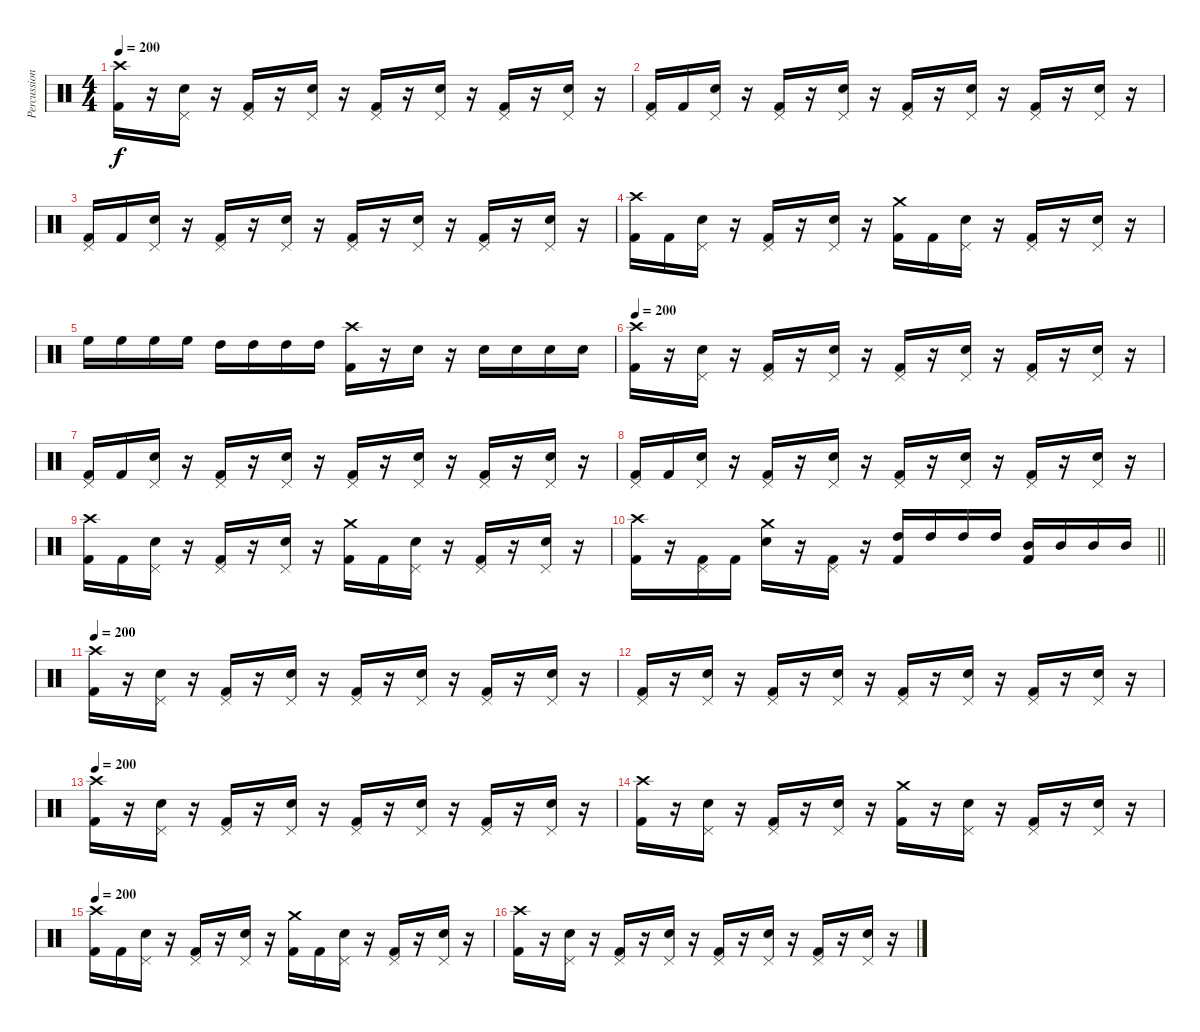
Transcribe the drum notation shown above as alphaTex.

\track ("Percussion" "Percussion") {instrument percussion}
\staff {score}
\articulation defaults
\ts (4 4)
\section ("" "")
\tempo 200
\clef neutral
\ks c
("Crash high (hit)" "Kick (hit) 2").16{dy f} r.16 ("Pedal Hi-Hat (hit)" "Snare (hit) 2").16 r.16 ("Pedal Hi-Hat (hit)" "Kick (hit) 2").16 r.16 ("Pedal Hi-Hat (hit)" "Snare (hit) 2").16 r.16 ("Pedal Hi-Hat (hit)" "Kick (hit) 2").16 r.16 ("Pedal Hi-Hat (hit)" "Snare (hit) 2").16 r.16 ("Pedal Hi-Hat (hit)" "Kick (hit) 2").16 r.16 ("Pedal Hi-Hat (hit)" "Snare (hit) 2").16 r.16 |
("Pedal Hi-Hat (hit)" "Kick (hit) 2").16 "Kick (hit) 2".16 ("Pedal Hi-Hat (hit)" "Snare (hit) 2").16 r.16 ("Pedal Hi-Hat (hit)" "Kick (hit) 2").16 r.16 ("Pedal Hi-Hat (hit)" "Snare (hit) 2").16 r.16 ("Pedal Hi-Hat (hit)" "Kick (hit) 2").16 r.16 ("Pedal Hi-Hat (hit)" "Snare (hit) 2").16 r.16 ("Pedal Hi-Hat (hit)" "Kick (hit) 2").16 r.16 ("Pedal Hi-Hat (hit)" "Snare (hit) 2").16 r.16 |
("Pedal Hi-Hat (hit)" "Kick (hit) 2").16 "Kick (hit) 2".16 ("Pedal Hi-Hat (hit)" "Snare (hit) 2").16 r.16 ("Pedal Hi-Hat (hit)" "Kick (hit) 2").16 r.16 ("Pedal Hi-Hat (hit)" "Snare (hit) 2").16 r.16 ("Pedal Hi-Hat (hit)" "Kick (hit) 2").16 r.16 ("Pedal Hi-Hat (hit)" "Snare (hit) 2").16 r.16 ("Pedal Hi-Hat (hit)" "Kick (hit) 2").16 r.16 ("Pedal Hi-Hat (hit)" "Snare (hit) 2").16 r.16 |
("Crash high (hit)" "Kick (hit) 2").16 "Kick (hit) 2".16 ("Pedal Hi-Hat (hit)" "Snare (hit) 2").16 r.16 ("Pedal Hi-Hat (hit)" "Kick (hit) 2").16 r.16 ("Pedal Hi-Hat (hit)" "Snare (hit) 2").16 r.16 ("Crash medium (hit)" "Kick (hit) 2").16 "Kick (hit) 2".16 ("Pedal Hi-Hat (hit)" "Snare (hit) 2").16 r.16 ("Pedal Hi-Hat (hit)" "Kick (hit) 2").16 r.16 ("Pedal Hi-Hat (hit)" "Snare (hit) 2").16 r.16 |
"High Floor Tom (hit)".16 "High Floor Tom (hit)".16 "High Floor Tom (hit)".16 "High Floor Tom (hit)".16 "High Tom (hit)".16 "High Tom (hit)".16 "High Tom (hit)".16 "High Tom (hit)".16 ("Crash high (hit)" "Kick (hit) 2").16 r.16 "Snare (hit) 2".16 r.16 "Snare (hit) 2".16 "Snare (hit) 2".16 "Snare (hit) 2".16 "Snare (hit) 2".16 |
\tempo 200
("Crash high (hit)" "Kick (hit) 2").16 r.16 ("Pedal Hi-Hat (hit)" "Snare (hit) 2").16 r.16 ("Pedal Hi-Hat (hit)" "Kick (hit) 2").16 r.16 ("Pedal Hi-Hat (hit)" "Snare (hit) 2").16 r.16 ("Pedal Hi-Hat (hit)" "Kick (hit) 2").16 r.16 ("Pedal Hi-Hat (hit)" "Snare (hit) 2").16 r.16 ("Pedal Hi-Hat (hit)" "Kick (hit) 2").16 r.16 ("Pedal Hi-Hat (hit)" "Snare (hit) 2").16 r.16 |
("Pedal Hi-Hat (hit)" "Kick (hit) 2").16 "Kick (hit) 2".16 ("Pedal Hi-Hat (hit)" "Snare (hit) 2").16 r.16 ("Pedal Hi-Hat (hit)" "Kick (hit) 2").16 r.16 ("Pedal Hi-Hat (hit)" "Snare (hit) 2").16 r.16 ("Pedal Hi-Hat (hit)" "Kick (hit) 2").16 r.16 ("Pedal Hi-Hat (hit)" "Snare (hit) 2").16 r.16 ("Pedal Hi-Hat (hit)" "Kick (hit) 2").16 r.16 ("Pedal Hi-Hat (hit)" "Snare (hit) 2").16 r.16 |
("Pedal Hi-Hat (hit)" "Kick (hit) 2").16 "Kick (hit) 2".16 ("Pedal Hi-Hat (hit)" "Snare (hit) 2").16 r.16 ("Pedal Hi-Hat (hit)" "Kick (hit) 2").16 r.16 ("Pedal Hi-Hat (hit)" "Snare (hit) 2").16 r.16 ("Pedal Hi-Hat (hit)" "Kick (hit) 2").16 r.16 ("Pedal Hi-Hat (hit)" "Snare (hit) 2").16 r.16 ("Pedal Hi-Hat (hit)" "Kick (hit) 2").16 r.16 ("Pedal Hi-Hat (hit)" "Snare (hit) 2").16 r.16 |
("Crash high (hit)" "Kick (hit) 2").16 "Kick (hit) 2".16 ("Pedal Hi-Hat (hit)" "Snare (hit) 2").16 r.16 ("Pedal Hi-Hat (hit)" "Kick (hit) 2").16 r.16 ("Pedal Hi-Hat (hit)" "Snare (hit) 2").16 r.16 ("Crash medium (hit)" "Kick (hit) 2").16 "Kick (hit) 2".16 ("Pedal Hi-Hat (hit)" "Snare (hit) 2").16 r.16 ("Pedal Hi-Hat (hit)" "Kick (hit) 2").16 r.16 ("Pedal Hi-Hat (hit)" "Snare (hit) 2").16 r.16 |
\barLineRight lightlight
("Crash high (hit)" "Kick (hit) 2").16 r.16 ("Pedal Hi-Hat (hit)" "Kick (hit) 2").16 "Kick (hit) 2".16 ("Crash medium (hit)" "Snare (hit) 2").16 r.16 ("Pedal Hi-Hat (hit)" "Kick (hit) 2").16 r.16 ("High Tom (hit)" "Kick (hit) 2").16 "High Tom (hit)".16 "High Tom (hit)".16 "High Tom (hit)".16 ("Mid Tom (hit)" "Kick (hit) 2").16 "Mid Tom (hit)".16 "Mid Tom (hit)".16 "Mid Tom (hit)".16 |
\section ("" "")
\tempo 200
("Crash high (hit)" "Kick (hit) 2").16 r.16 ("Pedal Hi-Hat (hit)" "Snare (hit) 2").16 r.16 ("Pedal Hi-Hat (hit)" "Kick (hit) 2").16 r.16 ("Pedal Hi-Hat (hit)" "Snare (hit) 2").16 r.16 ("Pedal Hi-Hat (hit)" "Kick (hit) 2").16 r.16 ("Pedal Hi-Hat (hit)" "Snare (hit) 2").16 r.16 ("Pedal Hi-Hat (hit)" "Kick (hit) 2").16 r.16 ("Pedal Hi-Hat (hit)" "Snare (hit) 2").16 r.16 |
("Pedal Hi-Hat (hit)" "Kick (hit) 2").16 r.16 ("Pedal Hi-Hat (hit)" "Snare (hit) 2").16 r.16 ("Pedal Hi-Hat (hit)" "Kick (hit) 2").16 r.16 ("Pedal Hi-Hat (hit)" "Snare (hit) 2").16 r.16 ("Pedal Hi-Hat (hit)" "Kick (hit) 2").16 r.16 ("Pedal Hi-Hat (hit)" "Snare (hit) 2").16 r.16 ("Pedal Hi-Hat (hit)" "Kick (hit) 2").16 r.16 ("Pedal Hi-Hat (hit)" "Snare (hit) 2").16 r.16 |
\tempo 200
("Crash high (hit)" "Kick (hit) 2").16 r.16 ("Pedal Hi-Hat (hit)" "Snare (hit) 2").16 r.16 ("Pedal Hi-Hat (hit)" "Kick (hit) 2").16 r.16 ("Pedal Hi-Hat (hit)" "Snare (hit) 2").16 r.16 ("Pedal Hi-Hat (hit)" "Kick (hit) 2").16 r.16 ("Pedal Hi-Hat (hit)" "Snare (hit) 2").16 r.16 ("Pedal Hi-Hat (hit)" "Kick (hit) 2").16 r.16 ("Pedal Hi-Hat (hit)" "Snare (hit) 2").16 r.16 |
("Crash high (hit)" "Kick (hit) 2").16 r.16 ("Pedal Hi-Hat (hit)" "Snare (hit) 2").16 r.16 ("Pedal Hi-Hat (hit)" "Kick (hit) 2").16 r.16 ("Pedal Hi-Hat (hit)" "Snare (hit) 2").16 r.16 ("Crash medium (hit)" "Kick (hit) 2").16 r.16 ("Pedal Hi-Hat (hit)" "Snare (hit) 2").16 r.16 ("Pedal Hi-Hat (hit)" "Kick (hit) 2").16 r.16 ("Pedal Hi-Hat (hit)" "Snare (hit) 2").16 r.16 |
\tempo 200
("Crash high (hit)" "Kick (hit) 2").16 "Kick (hit) 2".16 ("Pedal Hi-Hat (hit)" "Snare (hit) 2").16 r.16 ("Pedal Hi-Hat (hit)" "Kick (hit) 2").16 r.16 ("Pedal Hi-Hat (hit)" "Snare (hit) 2").16 r.16 ("Crash medium (hit)" "Kick (hit) 2").16 "Kick (hit) 2".16 ("Pedal Hi-Hat (hit)" "Snare (hit) 2").16 r.16 ("Pedal Hi-Hat (hit)" "Kick (hit) 2").16 r.16 ("Pedal Hi-Hat (hit)" "Snare (hit) 2").16 r.16 |
("Crash high (hit)" "Kick (hit) 2").16 r.16 ("Pedal Hi-Hat (hit)" "Snare (hit) 2").16 r.16 ("Pedal Hi-Hat (hit)" "Kick (hit) 2").16 r.16 ("Pedal Hi-Hat (hit)" "Snare (hit) 2").16 r.16 ("Pedal Hi-Hat (hit)" "Kick (hit) 2").16 r.16 ("Pedal Hi-Hat (hit)" "Snare (hit) 2").16 r.16 ("Pedal Hi-Hat (hit)" "Kick (hit) 2").16 r.16 ("Pedal Hi-Hat (hit)" "Snare (hit) 2").16 r.16
